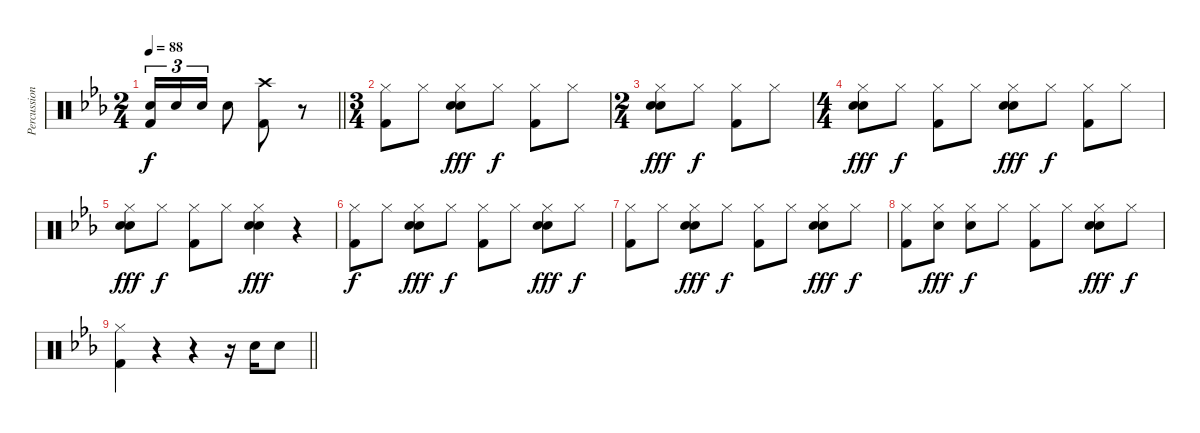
\track ("Percussion" "Percussion") {instrument percussion}
\staff {score}
\articulation defaults
\ts (2 4)
\tempo 88
\clef neutral
\barLineRight lightlight
\ks eb
("Snare (hit) 2" "Kick (hit) 2").16{tu (3 2) dy f} "Snare (hit) 2".16{tu (3 2)} "Snare (hit) 2".16{tu (3 2)} "Snare (hit) 2".8 ("Crash high (hit)" "Kick (hit) 2").8 r.8 |
\ts (3 4)
("Hi-Hat (closed)" "Kick (hit) 2").8 "Hi-Hat (closed)".8 ("Hi-Hat (closed)" "Snare (hit) 2" "Hand Clap (hit)").8{dy fff} "Hi-Hat (closed)".8{dy f} ("Hi-Hat (closed)" "Kick (hit) 2").8 "Hi-Hat (closed)".8 |
\ts (2 4)
("Hi-Hat (closed)" "Snare (hit) 2" "Hand Clap (hit)").8{dy fff} "Hi-Hat (closed)".8{dy f} ("Hi-Hat (closed)" "Kick (hit) 2").8 "Hi-Hat (closed)".8 |
\ts (4 4)
("Hi-Hat (closed)" "Snare (hit) 2" "Hand Clap (hit)").8{dy fff} "Hi-Hat (closed)".8{dy f} ("Hi-Hat (closed)" "Kick (hit) 2").8 "Hi-Hat (closed)".8 ("Hi-Hat (closed)" "Snare (hit) 2" "Hand Clap (hit)").8{dy fff} "Hi-Hat (closed)".8{dy f} ("Hi-Hat (closed)" "Kick (hit) 2").8 "Hi-Hat (closed)".8 |
("Hi-Hat (closed)" "Snare (hit) 2" "Hand Clap (hit)").8{dy fff} "Hi-Hat (closed)".8{dy f} ("Hi-Hat (closed)" "Kick (hit) 2").8 "Hi-Hat (closed)".8 ("Hi-Hat (closed)" "Snare (hit) 2" "Hand Clap (hit)").4{dy fff} r.4 |
("Hi-Hat (closed)" "Kick (hit) 2").8{dy f} "Hi-Hat (closed)".8 ("Hi-Hat (closed)" "Snare (hit) 2" "Hand Clap (hit)").8{dy fff} "Hi-Hat (closed)".8{dy f} ("Hi-Hat (closed)" "Kick (hit) 2").8 "Hi-Hat (closed)".8 ("Hi-Hat (closed)" "Snare (hit) 2" "Hand Clap (hit)").8{dy fff} "Hi-Hat (closed)".8{dy f} |
("Hi-Hat (closed)" "Kick (hit) 2").8 "Hi-Hat (closed)".8 ("Hi-Hat (closed)" "Snare (hit) 2" "Hand Clap (hit)").8{dy fff} "Hi-Hat (closed)".8{dy f} ("Hi-Hat (closed)" "Kick (hit) 2").8 "Hi-Hat (closed)".8 ("Hi-Hat (closed)" "Snare (hit) 2" "Hand Clap (hit)").8{dy fff} "Hi-Hat (closed)".8{dy f} |
("Hi-Hat (closed)" "Kick (hit) 2").8 ("Hi-Hat (closed)" "Hand Clap (hit)").8{dy fff} ("Hi-Hat (closed)" "Snare (hit) 2").8{dy f} "Hi-Hat (closed)".8 ("Hi-Hat (closed)" "Kick (hit) 2").8 "Hi-Hat (closed)".8 ("Hi-Hat (closed)" "Snare (hit) 2" "Hand Clap (hit)").8{dy fff} "Hi-Hat (closed)".8{dy f} |
\barLineRight lightlight
("Hi-Hat (closed)" "Kick (hit) 2").4 r.4 r.4 r.16 "Snare (hit) 2".16 "Snare (hit) 2".8
